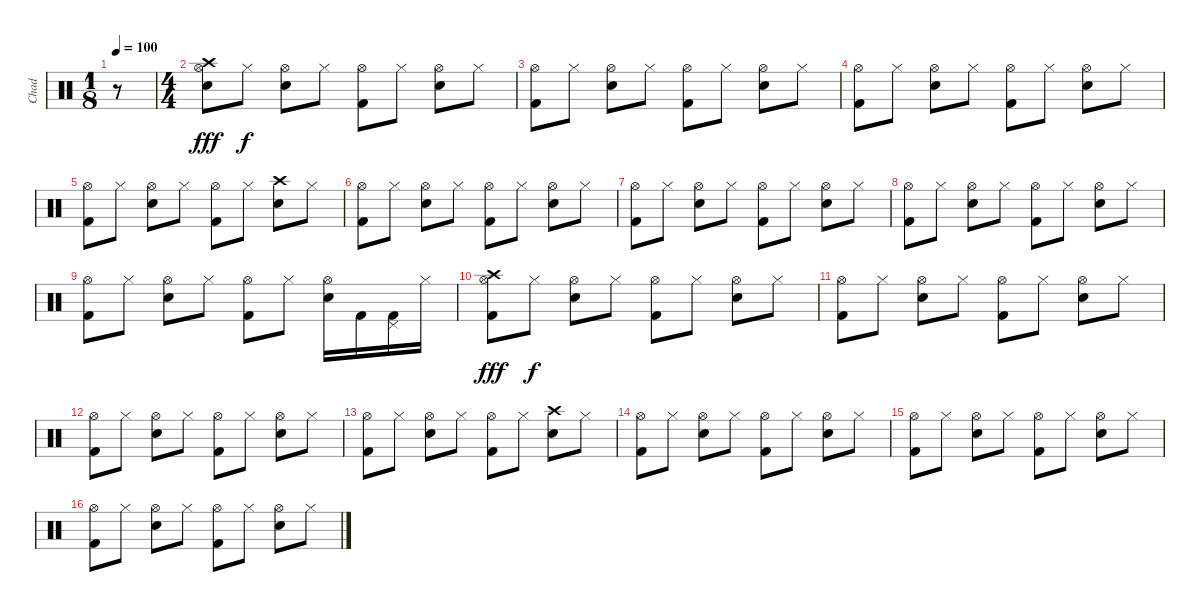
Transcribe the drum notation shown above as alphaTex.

\track ("Chad" "Chad") {instrument percussion}
\staff {score}
\articulation defaults
\ts (1 8)
\tempo 100
\clef neutral
\ks c
r.8{dy fff} |
\ts (4 4)
("Crash high (hit)" "Hi-Hat (open)" "Electric Snare (hit)").8 "Hi-Hat (closed)".8{dy f} ("Hi-Hat (open)" "Electric Snare (hit)").8 "Hi-Hat (closed)".8 ("Hi-Hat (open)" "Kick (hit) 2").8 "Hi-Hat (closed)".8 ("Hi-Hat (open)" "Electric Snare (hit)").8 "Hi-Hat (closed)".8 |
("Hi-Hat (open)" "Kick (hit) 2").8 "Hi-Hat (closed)".8 ("Hi-Hat (open)" "Electric Snare (hit)").8 "Hi-Hat (closed)".8 ("Hi-Hat (open)" "Kick (hit) 2").8 "Hi-Hat (closed)".8 ("Hi-Hat (open)" "Electric Snare (hit)").8 "Hi-Hat (closed)".8 |
("Hi-Hat (open)" "Kick (hit) 2").8 "Hi-Hat (closed)".8 ("Hi-Hat (open)" "Electric Snare (hit)").8 "Hi-Hat (closed)".8 ("Hi-Hat (open)" "Kick (hit) 2").8 "Hi-Hat (closed)".8 ("Hi-Hat (open)" "Electric Snare (hit)").8 "Hi-Hat (closed)".8 |
("Hi-Hat (open)" "Kick (hit) 2").8 "Hi-Hat (closed)".8 ("Hi-Hat (open)" "Electric Snare (hit)").8 "Hi-Hat (closed)".8 ("Hi-Hat (open)" "Kick (hit) 2").8 "Hi-Hat (closed)".8 ("Crash high (hit)" "Electric Snare (hit)").8 "Hi-Hat (closed)".8 |
("Hi-Hat (open)" "Kick (hit) 2").8 "Hi-Hat (closed)".8 ("Hi-Hat (open)" "Electric Snare (hit)").8 "Hi-Hat (closed)".8 ("Hi-Hat (open)" "Kick (hit) 2").8 "Hi-Hat (closed)".8 ("Hi-Hat (open)" "Electric Snare (hit)").8 "Hi-Hat (closed)".8 |
("Hi-Hat (open)" "Kick (hit) 2").8 "Hi-Hat (closed)".8 ("Hi-Hat (open)" "Electric Snare (hit)").8 "Hi-Hat (closed)".8 ("Hi-Hat (open)" "Kick (hit) 2").8 "Hi-Hat (closed)".8 ("Hi-Hat (open)" "Electric Snare (hit)").8 "Hi-Hat (closed)".8 |
("Hi-Hat (open)" "Kick (hit) 2").8 "Hi-Hat (closed)".8 ("Hi-Hat (open)" "Electric Snare (hit)").8 "Hi-Hat (closed)".8 ("Hi-Hat (open)" "Kick (hit) 2").8 "Hi-Hat (closed)".8 ("Hi-Hat (open)" "Electric Snare (hit)").8 "Hi-Hat (closed)".8 |
("Hi-Hat (open)" "Kick (hit) 2").8 "Hi-Hat (closed)".8 ("Hi-Hat (open)" "Electric Snare (hit)").8 "Hi-Hat (closed)".8 ("Hi-Hat (open)" "Kick (hit) 2").8 "Hi-Hat (closed)".8 ("Hi-Hat (open)" "Electric Snare (hit)").16 "Kick (hit) 2".16 ("Pedal Hi-Hat (hit)" "Kick (hit) 2").16 "Hi-Hat (closed)".16 |
("Crash high (hit)" "Hi-Hat (open)" "Kick (hit) 2").8{dy fff} "Hi-Hat (closed)".8{dy f} ("Hi-Hat (open)" "Electric Snare (hit)").8 "Hi-Hat (closed)".8 ("Hi-Hat (open)" "Kick (hit) 2").8 "Hi-Hat (closed)".8 ("Hi-Hat (open)" "Electric Snare (hit)").8 "Hi-Hat (closed)".8 |
("Hi-Hat (open)" "Kick (hit) 2").8 "Hi-Hat (closed)".8 ("Hi-Hat (open)" "Electric Snare (hit)").8 "Hi-Hat (closed)".8 ("Hi-Hat (open)" "Kick (hit) 2").8 "Hi-Hat (closed)".8 ("Hi-Hat (open)" "Electric Snare (hit)").8 "Hi-Hat (closed)".8 |
("Hi-Hat (open)" "Kick (hit) 2").8 "Hi-Hat (closed)".8 ("Hi-Hat (open)" "Electric Snare (hit)").8 "Hi-Hat (closed)".8 ("Hi-Hat (open)" "Kick (hit) 2").8 "Hi-Hat (closed)".8 ("Hi-Hat (open)" "Electric Snare (hit)").8 "Hi-Hat (closed)".8 |
("Hi-Hat (open)" "Kick (hit) 2").8 "Hi-Hat (closed)".8 ("Hi-Hat (open)" "Electric Snare (hit)").8 "Hi-Hat (closed)".8 ("Hi-Hat (open)" "Kick (hit) 2").8 "Hi-Hat (closed)".8 ("Crash high (hit)" "Electric Snare (hit)").8 "Hi-Hat (closed)".8 |
("Hi-Hat (open)" "Kick (hit) 2").8 "Hi-Hat (closed)".8 ("Hi-Hat (open)" "Electric Snare (hit)").8 "Hi-Hat (closed)".8 ("Hi-Hat (open)" "Kick (hit) 2").8 "Hi-Hat (closed)".8 ("Hi-Hat (open)" "Electric Snare (hit)").8 "Hi-Hat (closed)".8 |
("Hi-Hat (open)" "Kick (hit) 2").8 "Hi-Hat (closed)".8 ("Hi-Hat (open)" "Electric Snare (hit)").8 "Hi-Hat (closed)".8 ("Hi-Hat (open)" "Kick (hit) 2").8 "Hi-Hat (closed)".8 ("Hi-Hat (open)" "Electric Snare (hit)").8 "Hi-Hat (closed)".8 |
("Hi-Hat (open)" "Kick (hit) 2").8 "Hi-Hat (closed)".8 ("Hi-Hat (open)" "Electric Snare (hit)").8 "Hi-Hat (closed)".8 ("Hi-Hat (open)" "Kick (hit) 2").8 "Hi-Hat (closed)".8 ("Hi-Hat (open)" "Electric Snare (hit)").8 "Hi-Hat (closed)".8
